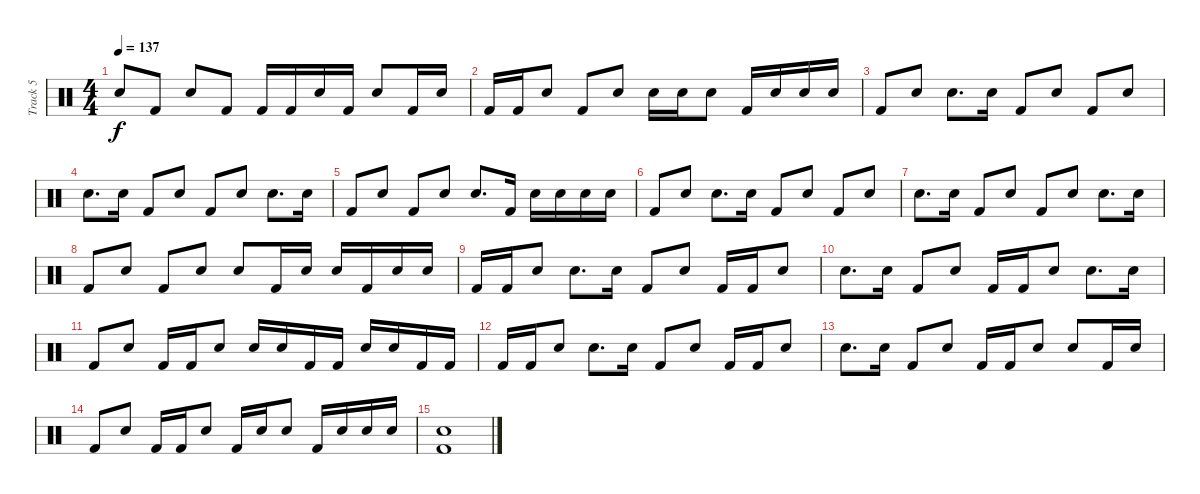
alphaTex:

\track ("Track 5" "Track 5") {instrument percussion}
\staff {score}
\articulation defaults
\ts (4 4)
\tempo 137
\clef neutral
\ks c "Snare (hit) 2".8{dy f} "Kick (hit) 2".8 "Snare (hit) 2".8 "Kick (hit) 2".8 "Kick (hit) 2".16 "Kick (hit) 2".16 "Snare (hit) 2".16 "Kick (hit) 2".16 "Snare (hit) 2".8 "Kick (hit) 2".16 "Snare (hit) 2".16
|
"Kick (hit) 2".16 "Kick (hit) 2".16 "Snare (hit) 2".8 "Kick (hit) 2".8 "Snare (hit) 2".8 "Snare (hit) 2".16 "Snare (hit) 2".16 "Snare (hit) 2".8 "Kick (hit) 2".16 "Snare (hit) 2".16 "Snare (hit) 2".16 "Snare (hit) 2".16 |
"Kick (hit) 2".8 "Snare (hit) 2".8 "Snare (hit) 2".8{d} "Snare (hit) 2".16 "Kick (hit) 2".8 "Snare (hit) 2".8 "Kick (hit) 2".8 "Snare (hit) 2".8 |
"Snare (hit) 2".8{d} "Snare (hit) 2".16 "Kick (hit) 2".8 "Snare (hit) 2".8 "Kick (hit) 2".8 "Snare (hit) 2".8 "Snare (hit) 2".8{d} "Snare (hit) 2".16 |
"Kick (hit) 2".8 "Snare (hit) 2".8 "Kick (hit) 2".8 "Snare (hit) 2".8 "Snare (hit) 2".8{d} "Kick (hit) 2".16 "Snare (hit) 2".16 "Snare (hit) 2".16 "Snare (hit) 2".16 "Snare (hit) 2".16 |
"Kick (hit) 2".8 "Snare (hit) 2".8 "Snare (hit) 2".8{d} "Snare (hit) 2".16 "Kick (hit) 2".8 "Snare (hit) 2".8 "Kick (hit) 2".8 "Snare (hit) 2".8 |
"Snare (hit) 2".8{d} "Snare (hit) 2".16 "Kick (hit) 2".8 "Snare (hit) 2".8 "Kick (hit) 2".8 "Snare (hit) 2".8 "Snare (hit) 2".8{d} "Snare (hit) 2".16 |
"Kick (hit) 2".8 "Snare (hit) 2".8 "Kick (hit) 2".8 "Snare (hit) 2".8 "Snare (hit) 2".8 "Kick (hit) 2".16 "Snare (hit) 2".16 "Snare (hit) 2".16 "Kick (hit) 2".16 "Snare (hit) 2".16 "Snare (hit) 2".16 |
"Kick (hit) 2".16 "Kick (hit) 2".16 "Snare (hit) 2".8 "Snare (hit) 2".8{d} "Snare (hit) 2".16 "Kick (hit) 2".8 "Snare (hit) 2".8 "Kick (hit) 2".16 "Kick (hit) 2".16 "Snare (hit) 2".8 |
"Snare (hit) 2".8{d} "Snare (hit) 2".16 "Kick (hit) 2".8 "Snare (hit) 2".8 "Kick (hit) 2".16 "Kick (hit) 2".16 "Snare (hit) 2".8 "Snare (hit) 2".8{d} "Snare (hit) 2".16 |
"Kick (hit) 2".8 "Snare (hit) 2".8 "Kick (hit) 2".16 "Kick (hit) 2".16 "Snare (hit) 2".8 "Snare (hit) 2".16 "Snare (hit) 2".16 "Kick (hit) 2".16 "Kick (hit) 2".16 "Snare (hit) 2".16 "Snare (hit) 2".16 "Kick (hit) 2".16 "Kick (hit) 2".16 |
"Kick (hit) 2".16 "Kick (hit) 2".16 "Snare (hit) 2".8 "Snare (hit) 2".8{d} "Snare (hit) 2".16 "Kick (hit) 2".8 "Snare (hit) 2".8 "Kick (hit) 2".16 "Kick (hit) 2".16 "Snare (hit) 2".8 |
"Snare (hit) 2".8{d} "Snare (hit) 2".16 "Kick (hit) 2".8 "Snare (hit) 2".8 "Kick (hit) 2".16 "Kick (hit) 2".16 "Snare (hit) 2".8 "Snare (hit) 2".8 "Kick (hit) 2".16 "Snare (hit) 2".16 |
"Kick (hit) 2".8 "Snare (hit) 2".8 "Kick (hit) 2".16 "Kick (hit) 2".16 "Snare (hit) 2".8 "Kick (hit) 2".16 "Snare (hit) 2".16 "Snare (hit) 2".8 "Kick (hit) 2".16 "Snare (hit) 2".16 "Snare (hit) 2".16 "Snare (hit) 2".16 |
("Snare (hit) 2" "Kick (hit) 2").1
